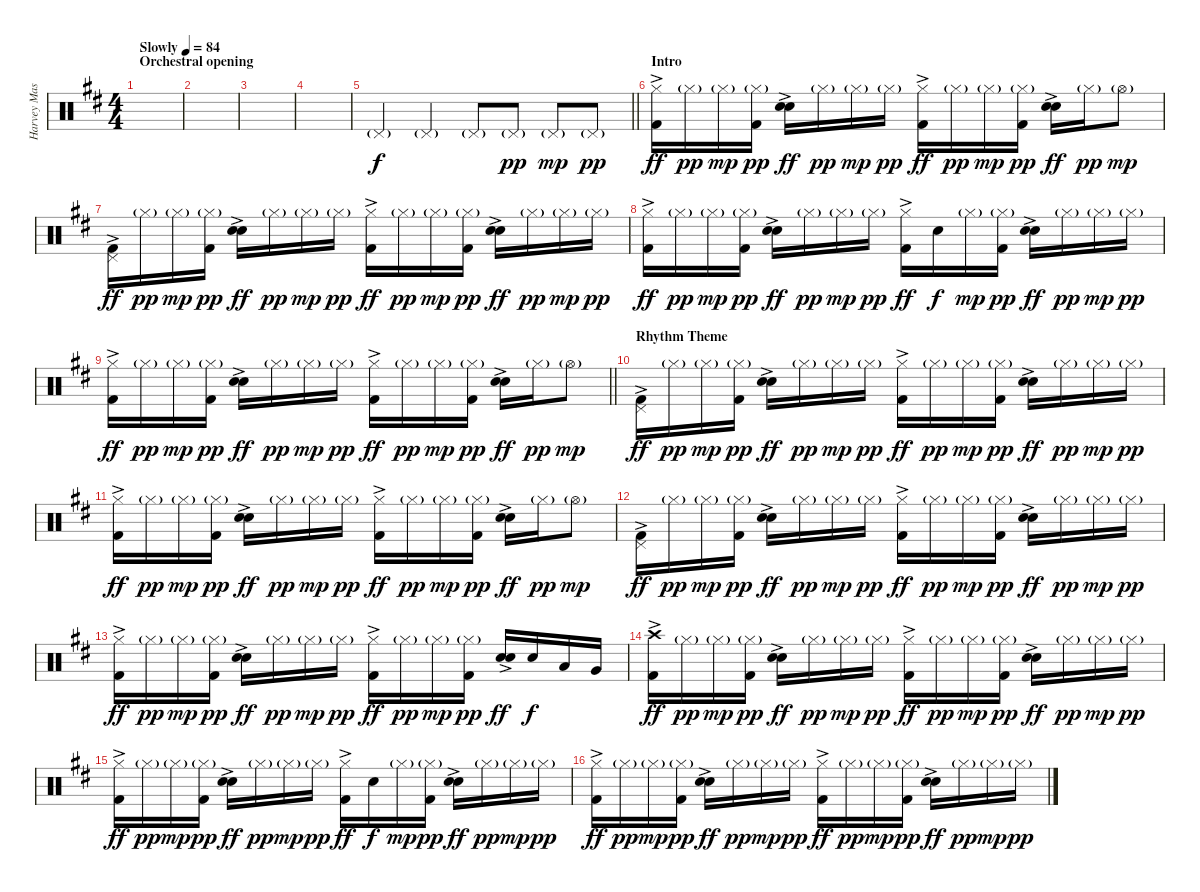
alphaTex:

\track ("Harvey Mason" "Harvey Mas") {instrument percussion}
\staff {score}
\articulation defaults
\ts (4 4)
\section ("" "Orchestral opening")
\tempo (84 "Slowly")
\clef neutral
\ks d
|
|
|
|
\barLineRight lightlight "Pedal Hi-Hat (hit)"{g}.4 "Pedal Hi-Hat (hit)"{g}.4 "Pedal Hi-Hat (hit)"{g}.8 "Pedal Hi-Hat (hit)"{g}.8{dy pp} "Pedal Hi-Hat (hit)"{g}.8{dy mp} "Pedal Hi-Hat (hit)"{g}.8{dy pp}
|
\section ("" "Intro")
("Hi-Hat (closed)" "Kick (hit) 2"{ac}).16{dy ff} "Hi-Hat (closed)"{g}.16{dy pp} "Hi-Hat (closed)"{g}.16{dy mp} ("Hi-Hat (closed)"{g} "Kick (hit) 2").16{dy pp} ("Electric Snare (hit)"{ac} "Snare (hit) 2").16{dy ff} "Hi-Hat (closed)"{g}.16{dy pp} "Hi-Hat (closed)"{g}.16{dy mp} "Hi-Hat (closed)"{g}.16{dy pp} ("Hi-Hat (closed)" "Kick (hit) 2"{ac}).16{dy ff} "Hi-Hat (closed)"{g}.16{dy pp} "Hi-Hat (closed)"{g}.16{dy mp} ("Hi-Hat (closed)"{g} "Kick (hit) 2").16{dy pp} ("Electric Snare (hit)"{ac} "Snare (hit) 2").16{dy ff} "Hi-Hat (closed)"{g}.16{dy pp} "Hi-Hat (open)"{g}.8{dy mp} |
("Pedal Hi-Hat (hit)" "Kick (hit) 2"{ac}).16{dy ff} "Hi-Hat (closed)"{g}.16{dy pp} "Hi-Hat (closed)"{g}.16{dy mp} ("Hi-Hat (closed)"{g} "Kick (hit) 2").16{dy pp} ("Electric Snare (hit)"{ac} "Snare (hit) 2").16{dy ff} "Hi-Hat (closed)"{g}.16{dy pp} "Hi-Hat (closed)"{g}.16{dy mp} "Hi-Hat (closed)"{g}.16{dy pp} ("Hi-Hat (closed)" "Kick (hit) 2"{ac}).16{dy ff} "Hi-Hat (closed)"{g}.16{dy pp} "Hi-Hat (closed)"{g}.16{dy mp} ("Hi-Hat (closed)"{g} "Kick (hit) 2").16{dy pp} ("Electric Snare (hit)"{ac} "Snare (hit) 2").16{dy ff} "Hi-Hat (closed)"{g}.16{dy pp} "Hi-Hat (closed)"{g}.16{dy mp} "Hi-Hat (closed)"{g}.16{dy pp} |
("Hi-Hat (closed)" "Kick (hit) 2"{ac}).16{dy ff} "Hi-Hat (closed)"{g}.16{dy pp} "Hi-Hat (closed)"{g}.16{dy mp} ("Hi-Hat (closed)"{g} "Kick (hit) 2").16{dy pp} ("Electric Snare (hit)"{ac} "Snare (hit) 2").16{dy ff} "Hi-Hat (closed)"{g}.16{dy pp} "Hi-Hat (closed)"{g}.16{dy mp} "Hi-Hat (closed)"{g}.16{dy pp} ("Hi-Hat (closed)" "Kick (hit) 2"{ac}).16{dy ff} "Snare (hit) 2".16{dy f} "Hi-Hat (closed)"{g}.16{dy mp} ("Hi-Hat (closed)"{g} "Kick (hit) 2").16{dy pp} ("Electric Snare (hit)"{ac} "Snare (hit) 2").16{dy ff} "Hi-Hat (closed)"{g}.16{dy pp} "Hi-Hat (closed)"{g}.16{dy mp} "Hi-Hat (closed)"{g}.16{dy pp} |
\barLineRight lightlight
("Hi-Hat (closed)" "Kick (hit) 2"{ac}).16{dy ff} "Hi-Hat (closed)"{g}.16{dy pp} "Hi-Hat (closed)"{g}.16{dy mp} ("Hi-Hat (closed)"{g} "Kick (hit) 2").16{dy pp} ("Electric Snare (hit)"{ac} "Snare (hit) 2").16{dy ff} "Hi-Hat (closed)"{g}.16{dy pp} "Hi-Hat (closed)"{g}.16{dy mp} "Hi-Hat (closed)"{g}.16{dy pp} ("Hi-Hat (closed)" "Kick (hit) 2"{ac}).16{dy ff} "Hi-Hat (closed)"{g}.16{dy pp} "Hi-Hat (closed)"{g}.16{dy mp} ("Hi-Hat (closed)"{g} "Kick (hit) 2").16{dy pp} ("Electric Snare (hit)"{ac} "Snare (hit) 2").16{dy ff} "Hi-Hat (closed)"{g}.16{dy pp} "Hi-Hat (open)"{g}.8{dy mp} |
\section ("" "Rhythm Theme")
("Pedal Hi-Hat (hit)" "Kick (hit) 2"{ac}).16{dy ff} "Hi-Hat (closed)"{g}.16{dy pp} "Hi-Hat (closed)"{g}.16{dy mp} ("Hi-Hat (closed)"{g} "Kick (hit) 2").16{dy pp} ("Electric Snare (hit)"{ac} "Snare (hit) 2").16{dy ff} "Hi-Hat (closed)"{g}.16{dy pp} "Hi-Hat (closed)"{g}.16{dy mp} "Hi-Hat (closed)"{g}.16{dy pp} ("Hi-Hat (closed)" "Kick (hit) 2"{ac}).16{dy ff} "Hi-Hat (closed)"{g}.16{dy pp} "Hi-Hat (closed)"{g}.16{dy mp} ("Hi-Hat (closed)"{g} "Kick (hit) 2").16{dy pp} ("Electric Snare (hit)"{ac} "Snare (hit) 2").16{dy ff} "Hi-Hat (closed)"{g}.16{dy pp} "Hi-Hat (closed)"{g}.16{dy mp} "Hi-Hat (closed)"{g}.16{dy pp} |
("Hi-Hat (closed)" "Kick (hit) 2"{ac}).16{dy ff} "Hi-Hat (closed)"{g}.16{dy pp} "Hi-Hat (closed)"{g}.16{dy mp} ("Hi-Hat (closed)"{g} "Kick (hit) 2").16{dy pp} ("Electric Snare (hit)"{ac} "Snare (hit) 2").16{dy ff} "Hi-Hat (closed)"{g}.16{dy pp} "Hi-Hat (closed)"{g}.16{dy mp} "Hi-Hat (closed)"{g}.16{dy pp} ("Hi-Hat (closed)" "Kick (hit) 2"{ac}).16{dy ff} "Hi-Hat (closed)"{g}.16{dy pp} "Hi-Hat (closed)"{g}.16{dy mp} ("Hi-Hat (closed)"{g} "Kick (hit) 2").16{dy pp} ("Electric Snare (hit)"{ac} "Snare (hit) 2").16{dy ff} "Hi-Hat (closed)"{g}.16{dy pp} "Hi-Hat (open)"{g}.8{dy mp} |
("Pedal Hi-Hat (hit)" "Kick (hit) 2"{ac}).16{dy ff} "Hi-Hat (closed)"{g}.16{dy pp} "Hi-Hat (closed)"{g}.16{dy mp} ("Hi-Hat (closed)"{g} "Kick (hit) 2").16{dy pp} ("Electric Snare (hit)"{ac} "Snare (hit) 2").16{dy ff} "Hi-Hat (closed)"{g}.16{dy pp} "Hi-Hat (closed)"{g}.16{dy mp} "Hi-Hat (closed)"{g}.16{dy pp} ("Hi-Hat (closed)" "Kick (hit) 2"{ac}).16{dy ff} "Hi-Hat (closed)"{g}.16{dy pp} "Hi-Hat (closed)"{g}.16{dy mp} ("Hi-Hat (closed)"{g} "Kick (hit) 2").16{dy pp} ("Electric Snare (hit)"{ac} "Snare (hit) 2").16{dy ff} "Hi-Hat (closed)"{g}.16{dy pp} "Hi-Hat (closed)"{g}.16{dy mp} "Hi-Hat (closed)"{g}.16{dy pp} |
("Hi-Hat (closed)" "Kick (hit) 2"{ac}).16{dy ff} "Hi-Hat (closed)"{g}.16{dy pp} "Hi-Hat (closed)"{g}.16{dy mp} ("Hi-Hat (closed)"{g} "Kick (hit) 2").16{dy pp} ("Electric Snare (hit)"{ac} "Snare (hit) 2").16{dy ff} "Hi-Hat (closed)"{g}.16{dy pp} "Hi-Hat (closed)"{g}.16{dy mp} "Hi-Hat (closed)"{g}.16{dy pp} ("Hi-Hat (closed)" "Kick (hit) 2"{ac}).16{dy ff} "Hi-Hat (closed)"{g}.16{dy pp} "Hi-Hat (closed)"{g}.16{dy mp} ("Hi-Hat (closed)"{g} "Kick (hit) 2").16{dy pp} ("Electric Snare (hit)"{ac} "Snare (hit) 2").16{dy ff} "Snare (hit) 2".16{dy f} "Low Tom (hit)".16 "Very Low Tom (hit)".16 |
("Crash high (hit)" "Kick (hit) 2"{ac}).16{dy ff} "Hi-Hat (closed)"{g}.16{dy pp} "Hi-Hat (closed)"{g}.16{dy mp} ("Hi-Hat (closed)"{g} "Kick (hit) 2").16{dy pp} ("Electric Snare (hit)"{ac} "Snare (hit) 2").16{dy ff} "Hi-Hat (closed)"{g}.16{dy pp} "Hi-Hat (closed)"{g}.16{dy mp} "Hi-Hat (closed)"{g}.16{dy pp} ("Hi-Hat (closed)" "Kick (hit) 2"{ac}).16{dy ff} "Hi-Hat (closed)"{g}.16{dy pp} "Hi-Hat (closed)"{g}.16{dy mp} ("Hi-Hat (closed)"{g} "Kick (hit) 2").16{dy pp} ("Electric Snare (hit)"{ac} "Snare (hit) 2").16{dy ff} "Hi-Hat (closed)"{g}.16{dy pp} "Hi-Hat (closed)"{g}.16{dy mp} "Hi-Hat (closed)"{g}.16{dy pp} |
("Hi-Hat (closed)" "Kick (hit) 2"{ac}).16{dy ff} "Hi-Hat (closed)"{g}.16{dy pp} "Hi-Hat (closed)"{g}.16{dy mp} ("Hi-Hat (closed)"{g} "Kick (hit) 2").16{dy pp} ("Electric Snare (hit)"{ac} "Snare (hit) 2").16{dy ff} "Hi-Hat (closed)"{g}.16{dy pp} "Hi-Hat (closed)"{g}.16{dy mp} "Hi-Hat (closed)"{g}.16{dy pp} ("Hi-Hat (closed)" "Kick (hit) 2"{ac}).16{dy ff} "Snare (hit) 2".16{dy f} "Hi-Hat (closed)"{g}.16{dy mp} ("Hi-Hat (closed)"{g} "Kick (hit) 2").16{dy pp} ("Electric Snare (hit)"{ac} "Snare (hit) 2").16{dy ff} "Hi-Hat (closed)"{g}.16{dy pp} "Hi-Hat (closed)"{g}.16{dy mp} "Hi-Hat (closed)"{g}.16{dy pp} |
("Hi-Hat (closed)" "Kick (hit) 2"{ac}).16{dy ff} "Hi-Hat (closed)"{g}.16{dy pp} "Hi-Hat (closed)"{g}.16{dy mp} ("Hi-Hat (closed)"{g} "Kick (hit) 2").16{dy pp} ("Electric Snare (hit)"{ac} "Snare (hit) 2").16{dy ff} "Hi-Hat (closed)"{g}.16{dy pp} "Hi-Hat (closed)"{g}.16{dy mp} "Hi-Hat (closed)"{g}.16{dy pp} ("Hi-Hat (closed)" "Kick (hit) 2"{ac}).16{dy ff} "Hi-Hat (closed)"{g}.16{dy pp} "Hi-Hat (closed)"{g}.16{dy mp} ("Hi-Hat (closed)"{g} "Kick (hit) 2").16{dy pp} ("Electric Snare (hit)"{ac} "Snare (hit) 2").16{dy ff} "Hi-Hat (closed)"{g}.16{dy pp} "Hi-Hat (closed)"{g}.16{dy mp} "Hi-Hat (closed)"{g}.16{dy pp}
